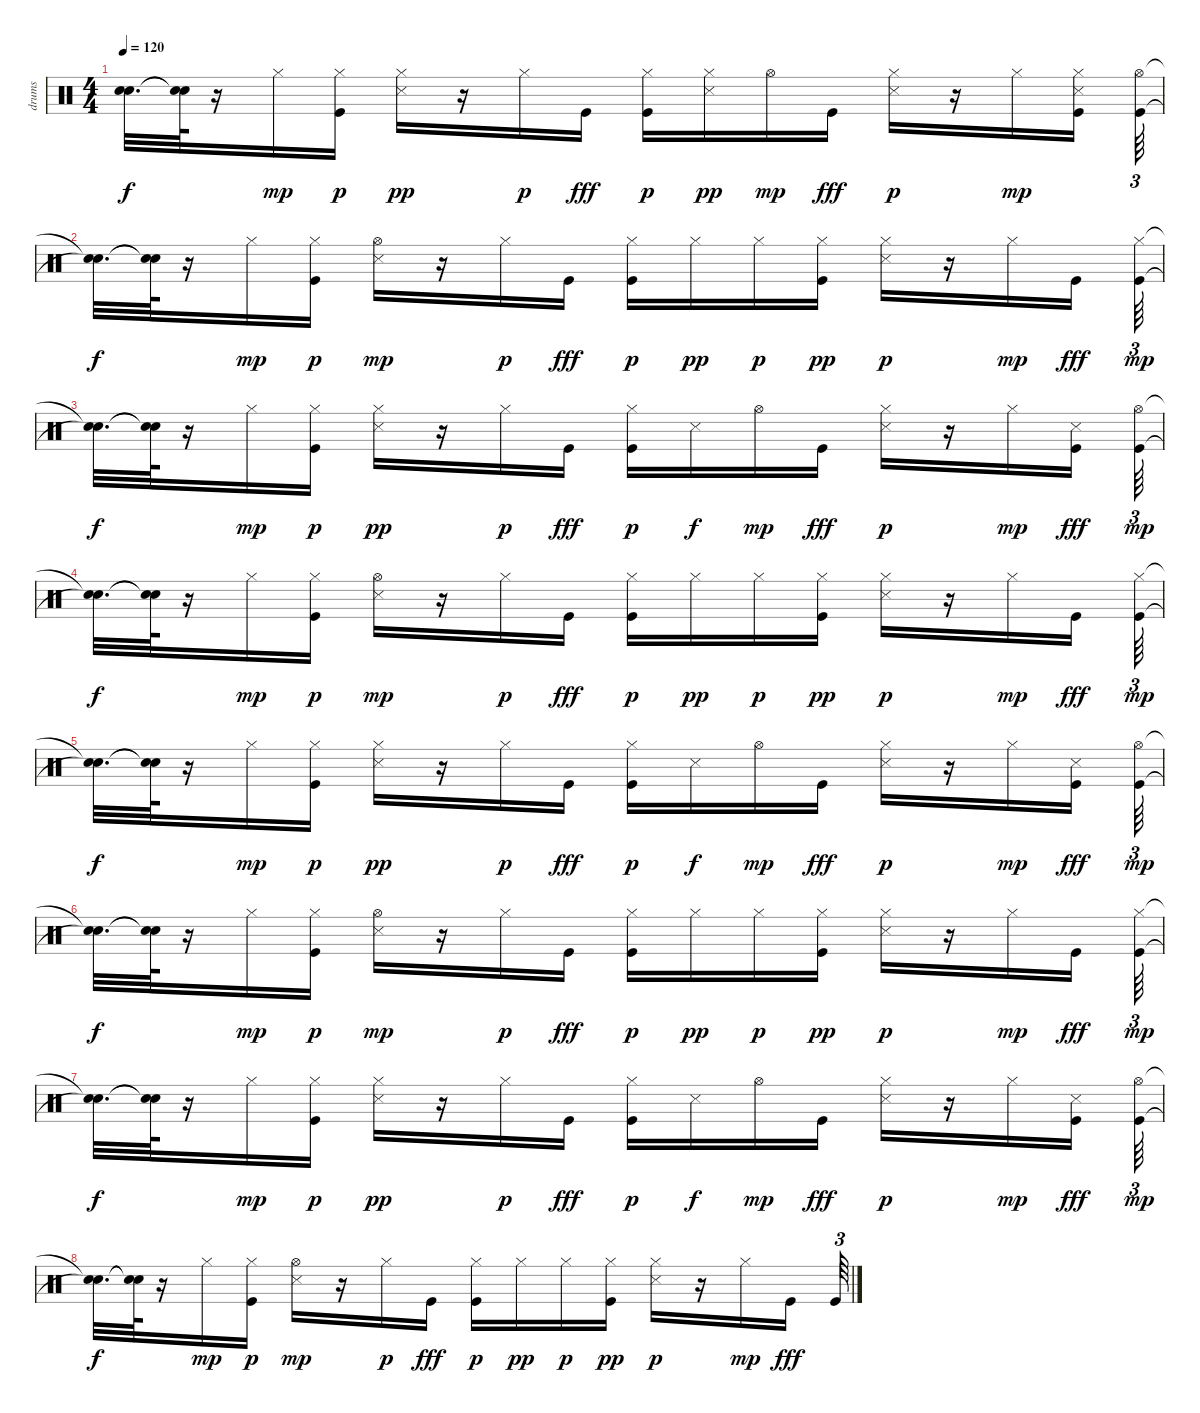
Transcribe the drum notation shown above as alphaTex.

\track ("drums" "drums") {instrument percussion}
\staff {score}
\articulation defaults
\ts (4 4)
\tempo 120
\clef neutral
\ks c
("Snare (hit)"{t} "Snare (hit)"{t}).32{d dy f} ("Snare (hit)"{t} "Snare (hit)"{t}).64 r.16 "Hi-Hat (closed)".16{dy mp} ("Kick (hit)" "Hi-Hat (closed)").16{dy p} ("Snare (side stick) 3" "Hi-Hat (closed)").16{dy pp} r.16 "Hi-Hat (closed)".16{dy p} "Kick (hit)".16{dy fff} ("Kick (hit)" "Hi-Hat (closed)").16{dy p} ("Snare (side stick) 3" "Hi-Hat (closed)").16{dy pp} "Hi-Hat (open)".16{dy mp} "Kick (hit)".16{dy fff} ("Snare (side stick) 3" "Hi-Hat (closed)").16{dy p} r.16 "Hi-Hat (closed)".16{dy mp} ("Snare (side stick) 3" "Kick (hit)" "Hi-Hat (closed)").16 ("Kick (hit)" "Hi-Hat (open)").64{tu (3 2)} |
("Snare (hit)"{t} "Snare (hit)"{t}).32{d dy f} ("Snare (hit)"{t} "Snare (hit)"{t}).64 r.16 "Hi-Hat (closed)".16{dy mp} ("Kick (hit)" "Hi-Hat (closed)").16{dy p} ("Snare (side stick) 3" "Hi-Hat (open)").16{dy mp} r.16 "Hi-Hat (closed)".16{dy p} "Kick (hit)".16{dy fff} ("Kick (hit)" "Hi-Hat (closed)").16{dy p} "Hi-Hat (closed)".16{dy pp} "Hi-Hat (closed)".16{dy p} ("Kick (hit)" "Hi-Hat (closed)").16{dy pp} ("Snare (side stick) 3" "Hi-Hat (closed)").16{dy p} r.16 "Hi-Hat (closed)".16{dy mp} "Kick (hit)".16{dy fff} ("Kick (hit)" "Hi-Hat (closed)").64{tu (3 2) dy mp} |
("Snare (hit)"{t} "Snare (hit)"{t}).32{d dy f} ("Snare (hit)"{t} "Snare (hit)"{t}).64 r.16 "Hi-Hat (closed)".16{dy mp} ("Kick (hit)" "Hi-Hat (closed)").16{dy p} ("Snare (side stick) 3" "Hi-Hat (closed)").16{dy pp} r.16 "Hi-Hat (closed)".16{dy p} "Kick (hit)".16{dy fff} ("Kick (hit)" "Hi-Hat (closed)").16{dy p} "Snare (side stick) 3".16{dy f} "Hi-Hat (open)".16{dy mp} "Kick (hit)".16{dy fff} ("Snare (side stick) 3" "Hi-Hat (closed)").16{dy p} r.16 "Hi-Hat (closed)".16{dy mp} ("Kick (hit)" "Snare (side stick) 3").16{dy fff} ("Kick (hit)" "Hi-Hat (open)").64{tu (3 2) dy mp} |
("Snare (hit)"{t} "Snare (hit)"{t}).32{d dy f} ("Snare (hit)"{t} "Snare (hit)"{t}).64 r.16 "Hi-Hat (closed)".16{dy mp} ("Kick (hit)" "Hi-Hat (closed)").16{dy p} ("Snare (side stick) 3" "Hi-Hat (open)").16{dy mp} r.16 "Hi-Hat (closed)".16{dy p} "Kick (hit)".16{dy fff} ("Kick (hit)" "Hi-Hat (closed)").16{dy p} "Hi-Hat (closed)".16{dy pp} "Hi-Hat (closed)".16{dy p} ("Kick (hit)" "Hi-Hat (closed)").16{dy pp} ("Snare (side stick) 3" "Hi-Hat (closed)").16{dy p} r.16 "Hi-Hat (closed)".16{dy mp} "Kick (hit)".16{dy fff} ("Kick (hit)" "Hi-Hat (closed)").64{tu (3 2) dy mp} |
("Snare (hit)"{t} "Snare (hit)"{t}).32{d dy f} ("Snare (hit)"{t} "Snare (hit)"{t}).64 r.16 "Hi-Hat (closed)".16{dy mp} ("Kick (hit)" "Hi-Hat (closed)").16{dy p} ("Snare (side stick) 3" "Hi-Hat (closed)").16{dy pp} r.16 "Hi-Hat (closed)".16{dy p} "Kick (hit)".16{dy fff} ("Kick (hit)" "Hi-Hat (closed)").16{dy p} "Snare (side stick) 3".16{dy f} "Hi-Hat (open)".16{dy mp} "Kick (hit)".16{dy fff} ("Snare (side stick) 3" "Hi-Hat (closed)").16{dy p} r.16 "Hi-Hat (closed)".16{dy mp} ("Kick (hit)" "Snare (side stick) 3").16{dy fff} ("Kick (hit)" "Hi-Hat (open)").64{tu (3 2) dy mp} |
("Snare (hit)"{t} "Snare (hit)"{t}).32{d dy f} ("Snare (hit)"{t} "Snare (hit)"{t}).64 r.16 "Hi-Hat (closed)".16{dy mp} ("Kick (hit)" "Hi-Hat (closed)").16{dy p} ("Snare (side stick) 3" "Hi-Hat (open)").16{dy mp} r.16 "Hi-Hat (closed)".16{dy p} "Kick (hit)".16{dy fff} ("Kick (hit)" "Hi-Hat (closed)").16{dy p} "Hi-Hat (closed)".16{dy pp} "Hi-Hat (closed)".16{dy p} ("Kick (hit)" "Hi-Hat (closed)").16{dy pp} ("Snare (side stick) 3" "Hi-Hat (closed)").16{dy p} r.16 "Hi-Hat (closed)".16{dy mp} "Kick (hit)".16{dy fff} ("Kick (hit)" "Hi-Hat (closed)").64{tu (3 2) dy mp} |
("Snare (hit)"{t} "Snare (hit)"{t}).32{d dy f} ("Snare (hit)"{t} "Snare (hit)"{t}).64 r.16 "Hi-Hat (closed)".16{dy mp} ("Kick (hit)" "Hi-Hat (closed)").16{dy p} ("Snare (side stick) 3" "Hi-Hat (closed)").16{dy pp} r.16 "Hi-Hat (closed)".16{dy p} "Kick (hit)".16{dy fff} ("Kick (hit)" "Hi-Hat (closed)").16{dy p} "Snare (side stick) 3".16{dy f} "Hi-Hat (open)".16{dy mp} "Kick (hit)".16{dy fff} ("Snare (side stick) 3" "Hi-Hat (closed)").16{dy p} r.16 "Hi-Hat (closed)".16{dy mp} ("Kick (hit)" "Snare (side stick) 3").16{dy fff} ("Kick (hit)" "Hi-Hat (open)").64{tu (3 2) dy mp} |
("Snare (hit)"{t} "Snare (hit)"{t}).32{d dy f} ("Snare (hit)"{t} "Snare (hit)"{t}).64 r.16 "Hi-Hat (closed)".16{dy mp} ("Kick (hit)" "Hi-Hat (closed)").16{dy p} ("Snare (side stick) 3" "Hi-Hat (open)").16{dy mp} r.16 "Hi-Hat (closed)".16{dy p} "Kick (hit)".16{dy fff} ("Kick (hit)" "Hi-Hat (closed)").16{dy p} "Hi-Hat (closed)".16{dy pp} "Hi-Hat (closed)".16{dy p} ("Kick (hit)" "Hi-Hat (closed)").16{dy pp} ("Snare (side stick) 3" "Hi-Hat (closed)").16{dy p} r.16 "Hi-Hat (closed)".16{dy mp} "Kick (hit)".16{dy fff} "Kick (hit)".64{tu (3 2)}
